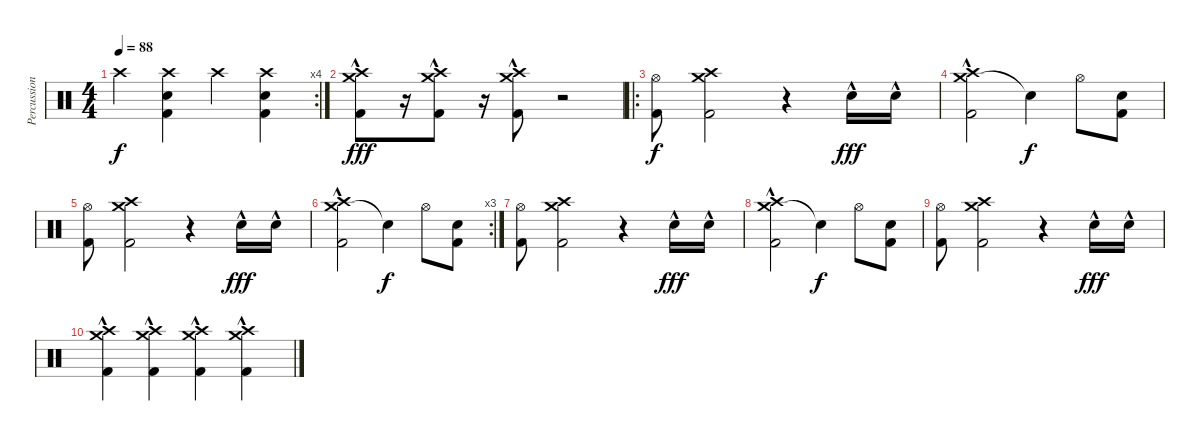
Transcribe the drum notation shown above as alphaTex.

\track ("Percussion" "Percussion") {instrument percussion}
\staff {score}
\articulation defaults
\rc 4
\ts (4 4)
\tempo 88
\clef neutral
\ks c "Crash high (hit)".4{dy f}
("Crash high (hit)" "Electric Snare (hit)" "Kick (hit) 2").4 "Crash high (hit)".4 ("Crash high (hit)" "Electric Snare (hit)" "Kick (hit) 2").4 |
("Crash high (hit)"{hac} "Crash medium (hit)"{hac} "Kick (hit) 2").8{dy fff} r.16 ("Crash high (hit)"{hac} "Crash medium (hit)"{hac} "Kick (hit) 2").8 r.16 ("Crash medium (hit)"{hac} "Crash high (hit)"{hac} "Kick (hit) 2").8 r.2 |
\ro
("Hi-Hat (open)" "Kick (hit) 2").8{dy f} ("Crash medium (hit)" "Crash high (hit)" "Kick (hit) 2").2 r.4 "Electric Snare (hit)"{hac}.16{dy fff} "Electric Snare (hit)"{hac}.16 |
("Crash medium (hit)"{hac} "Crash high (hit)"{hac} "Kick (hit) 2").2 "Snare (hit)"{t}.4{dy f} "Hi-Hat (open)".8 ("Electric Snare (hit)" "Kick (hit) 2").8 |
("Hi-Hat (open)" "Kick (hit) 2").8 ("Crash medium (hit)" "Crash high (hit)" "Kick (hit) 2").2 r.4 "Electric Snare (hit)"{hac}.16{dy fff} "Electric Snare (hit)"{hac}.16 |
\rc 3
("Crash medium (hit)"{hac} "Crash high (hit)"{hac} "Kick (hit) 2").2 "Snare (hit)"{t}.4{dy f} "Hi-Hat (open)".8 ("Electric Snare (hit)" "Kick (hit) 2").8 |
("Hi-Hat (open)" "Kick (hit) 2").8 ("Crash medium (hit)" "Crash high (hit)" "Kick (hit) 2").2 r.4 "Electric Snare (hit)"{hac}.16{dy fff} "Electric Snare (hit)"{hac}.16 |
("Crash medium (hit)"{hac} "Crash high (hit)"{hac} "Kick (hit) 2").2 "Snare (hit)"{t}.4{dy f} "Hi-Hat (open)".8 ("Electric Snare (hit)" "Kick (hit) 2").8 |
("Hi-Hat (open)" "Kick (hit) 2").8 ("Crash medium (hit)" "Crash high (hit)" "Kick (hit) 2").2 r.4 "Electric Snare (hit)"{hac}.16{dy fff} "Electric Snare (hit)"{hac}.16 |
("Crash medium (hit)"{hac} "Crash high (hit)"{hac} "Kick (hit) 2").4 ("Crash medium (hit)"{hac} "Crash high (hit)"{hac} "Kick (hit) 2").4 ("Crash medium (hit)"{hac} "Crash high (hit)"{hac} "Kick (hit) 2").4 ("Crash medium (hit)"{hac} "Crash high (hit)"{hac} "Kick (hit) 2").4
